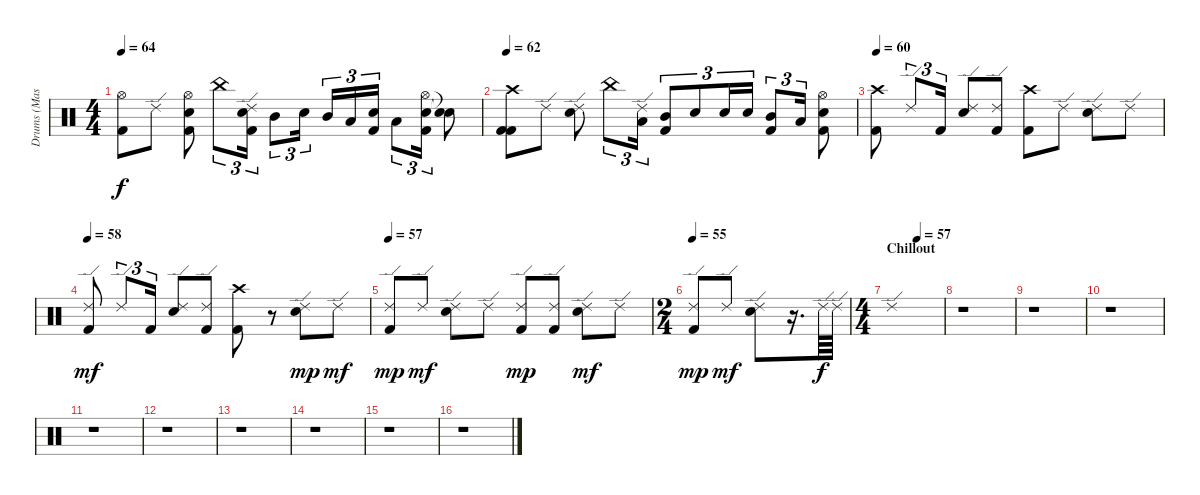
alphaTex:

\track ("Drums (Mason)" "Drums (Mas") {instrument percussion}
\staff {score}
\articulation defaults
\ts (4 4)
\tempo 64
\clef neutral
\ks c
("Hi-Hat (open)" "Kick (hit) 2").8{dy f} "Ride (edge) 2".8 ("Hi-Hat (open)" "Electric Snare (hit)" "Kick (hit) 2").8 "China (hit)".8{tu (3 2)} ("Ride (edge) 2" "Electric Snare (hit)" "Kick (hit) 2").16{tu (3 2)} "Mid Tom (hit)".8{tu (3 2)} "Electric Snare (hit)".16{tu (3 2)} "Mid Tom (hit)".16{tu (3 2)} "Low Tom (hit)".16{tu (3 2)} ("Electric Snare (hit)" "Kick (hit) 2").16{tu (3 2)} "Low Tom (hit)".8{tu (3 2)} ("Hi-Hat (open)" "Electric Snare (hit)" "Kick (hit) 2").16{tu (3 2)} ("Snare (hit)"{t} "Snare (hit)"{t}).8 |
\tempo 62
("Crash high (hit)" "Kick (hit) 2" "Kick (hit) 2").8 "Ride (edge) 2".8 ("Ride (edge) 2" "Electric Snare (hit)").8 "China (hit)".8{tu (3 2)} ("Ride (edge) 2" "Low Tom (hit)").16{tu (3 2)} ("Mid Tom (hit)" "Kick (hit) 2").8{tu (3 2)} "Electric Snare (hit)".8{tu (3 2)} "Electric Snare (hit)".16{tu (3 2)} "Electric Snare (hit)".16{tu (3 2)} ("Mid Tom (hit)" "Kick (hit) 2").8{tu (3 2)} "Low Tom (hit)".16{tu (3 2)} ("Hi-Hat (open)" "Electric Snare (hit)" "Kick (hit) 2").8 |
\tempo 60
("Crash high (hit)" "Kick (hit) 2").8 "Ride (edge) 2".8{tu (3 2)} "Kick (hit) 2".16{tu (3 2)} ("Ride (edge) 2" "Electric Snare (hit)").8 ("Ride (edge) 2" "Kick (hit) 2").8 ("Crash high (hit)" "Kick (hit) 2").8 "Ride (edge) 2".8 ("Ride (edge) 2" "Electric Snare (hit)").8 "Ride (edge) 2".8 |
\tempo 58
("Ride (edge) 2" "Kick (hit) 2").8{dy mf} "Ride (edge) 2".8{tu (3 2)} "Kick (hit) 2".16{tu (3 2)} ("Ride (edge) 2" "Electric Snare (hit)").8 ("Ride (edge) 2" "Kick (hit) 2").8 ("Crash high (hit)" "Kick (hit) 2").8 r.8 ("Ride (edge) 2" "Electric Snare (hit)").8{dy mp} "Ride (edge) 2".8{dy mf} |
\tempo 57
("Ride (edge) 2" "Kick (hit) 2").8{dy mp} "Ride (edge) 2".8{dy mf} ("Ride (edge) 2" "Electric Snare (hit)").8 "Ride (edge) 2".8 ("Ride (edge) 2" "Kick (hit) 2").8{dy mp} ("Ride (edge) 2" "Kick (hit) 2").8 ("Ride (edge) 2" "Electric Snare (hit)").8{dy mf} "Ride (edge) 2".8 |
\ts (2 4)
\tempo 55
("Ride (edge) 2" "Kick (hit) 2").8{dy mp} "Ride (edge) 2".8{dy mf} ("Ride (edge) 2" "Electric Snare (hit)").8 r.16{d} "Ride (edge) 2".64{dy f} "Ride (edge) 2".64 |
\ts (4 4)
\section ("" "Chillout")
\tempo (57 0.5)
"Ride (edge) 2".1 |
r.1 |
r.1 |
r.1 |
r.1 |
r.1 |
r.1 |
r.1 |
r.1 |
r.1
